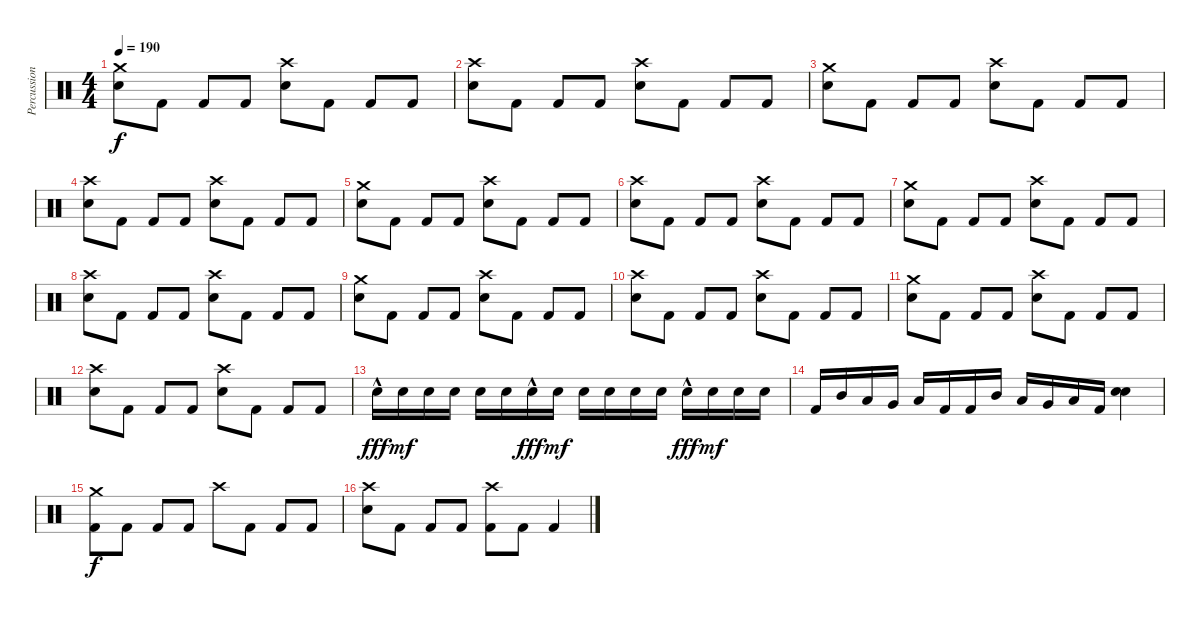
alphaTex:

\track ("Percussions" "Percussion") {instrument percussion}
\staff {score}
\articulation defaults
\ts (4 4)
\tempo 190
\clef neutral
\ks c
("Crash medium (hit)" "Electric Snare (hit)").8{dy f} "Kick (hit) 2".8 "Kick (hit) 2".8 "Kick (hit) 2".8 ("Crash high (hit)" "Electric Snare (hit)").8 "Kick (hit) 2".8 "Kick (hit) 2".8 "Kick (hit) 2".8 |
("Crash high (hit)" "Electric Snare (hit)").8 "Kick (hit) 2".8 "Kick (hit) 2".8 "Kick (hit) 2".8 ("Crash high (hit)" "Electric Snare (hit)").8 "Kick (hit) 2".8 "Kick (hit) 2".8 "Kick (hit) 2".8 |
("Crash medium (hit)" "Electric Snare (hit)").8 "Kick (hit) 2".8 "Kick (hit) 2".8 "Kick (hit) 2".8 ("Crash high (hit)" "Electric Snare (hit)").8 "Kick (hit) 2".8 "Kick (hit) 2".8 "Kick (hit) 2".8 |
("Crash high (hit)" "Electric Snare (hit)").8 "Kick (hit) 2".8 "Kick (hit) 2".8 "Kick (hit) 2".8 ("Crash high (hit)" "Electric Snare (hit)").8 "Kick (hit) 2".8 "Kick (hit) 2".8 "Kick (hit) 2".8 |
("Crash medium (hit)" "Electric Snare (hit)").8 "Kick (hit) 2".8 "Kick (hit) 2".8 "Kick (hit) 2".8 ("Crash high (hit)" "Electric Snare (hit)").8 "Kick (hit) 2".8 "Kick (hit) 2".8 "Kick (hit) 2".8 |
("Crash high (hit)" "Electric Snare (hit)").8 "Kick (hit) 2".8 "Kick (hit) 2".8 "Kick (hit) 2".8 ("Crash high (hit)" "Electric Snare (hit)").8 "Kick (hit) 2".8 "Kick (hit) 2".8 "Kick (hit) 2".8 |
("Crash medium (hit)" "Electric Snare (hit)").8 "Kick (hit) 2".8 "Kick (hit) 2".8 "Kick (hit) 2".8 ("Crash high (hit)" "Electric Snare (hit)").8 "Kick (hit) 2".8 "Kick (hit) 2".8 "Kick (hit) 2".8 |
("Crash high (hit)" "Electric Snare (hit)").8 "Kick (hit) 2".8 "Kick (hit) 2".8 "Kick (hit) 2".8 ("Crash high (hit)" "Electric Snare (hit)").8 "Kick (hit) 2".8 "Kick (hit) 2".8 "Kick (hit) 2".8 |
("Crash medium (hit)" "Electric Snare (hit)").8 "Kick (hit) 2".8 "Kick (hit) 2".8 "Kick (hit) 2".8 ("Crash high (hit)" "Electric Snare (hit)").8 "Kick (hit) 2".8 "Kick (hit) 2".8 "Kick (hit) 2".8 |
("Crash high (hit)" "Electric Snare (hit)").8 "Kick (hit) 2".8 "Kick (hit) 2".8 "Kick (hit) 2".8 ("Crash high (hit)" "Electric Snare (hit)").8 "Kick (hit) 2".8 "Kick (hit) 2".8 "Kick (hit) 2".8 |
("Crash medium (hit)" "Electric Snare (hit)").8 "Kick (hit) 2".8 "Kick (hit) 2".8 "Kick (hit) 2".8 ("Crash high (hit)" "Electric Snare (hit)").8 "Kick (hit) 2".8 "Kick (hit) 2".8 "Kick (hit) 2".8 |
("Crash high (hit)" "Electric Snare (hit)").8 "Kick (hit) 2".8 "Kick (hit) 2".8 "Kick (hit) 2".8 ("Crash high (hit)" "Electric Snare (hit)").8 "Kick (hit) 2".8 "Kick (hit) 2".8 "Kick (hit) 2".8 |
"Electric Snare (hit)"{hac}.16{dy fff} "Electric Snare (hit)".16{dy mf} "Electric Snare (hit)".16 "Electric Snare (hit)".16 "Electric Snare (hit)".16 "Electric Snare (hit)".16 "Electric Snare (hit)"{hac}.16{dy fff} "Electric Snare (hit)".16{dy mf} "Electric Snare (hit)".16 "Electric Snare (hit)".16 "Electric Snare (hit)".16 "Electric Snare (hit)".16 "Electric Snare (hit)"{hac}.16{dy fff} "Electric Snare (hit)".16{dy mf} "Electric Snare (hit)".16 "Electric Snare (hit)".16 |
"Kick (hit) 2".16 "Mid Tom (hit)".16 "Low Tom (hit)".16 "Very Low Tom (hit)".16 "Low Floor Tom (hit)".16 "Kick (hit) 2".16 "Kick (hit) 2".16 "Mid Tom (hit)".16 "Low Tom (hit)".16 "Very Low Tom (hit)".16 "Low Floor Tom (hit)".16 "Kick (hit) 2".16 ("Electric Snare (hit)" "Electric Snare (hit)").4 |
("Crash medium (hit)" "Kick (hit) 2").8{dy f} "Kick (hit) 2".8 "Kick (hit) 2".8 "Kick (hit) 2".8 "Crash high (hit)".8 "Kick (hit) 2".8 "Kick (hit) 2".8 "Kick (hit) 2".8 |
("Crash high (hit)" "Electric Snare (hit)").8 "Kick (hit) 2".8 "Kick (hit) 2".8 "Kick (hit) 2".8 ("Crash high (hit)" "Kick (hit) 2").8 "Kick (hit) 2".8 "Kick (hit) 2".4
